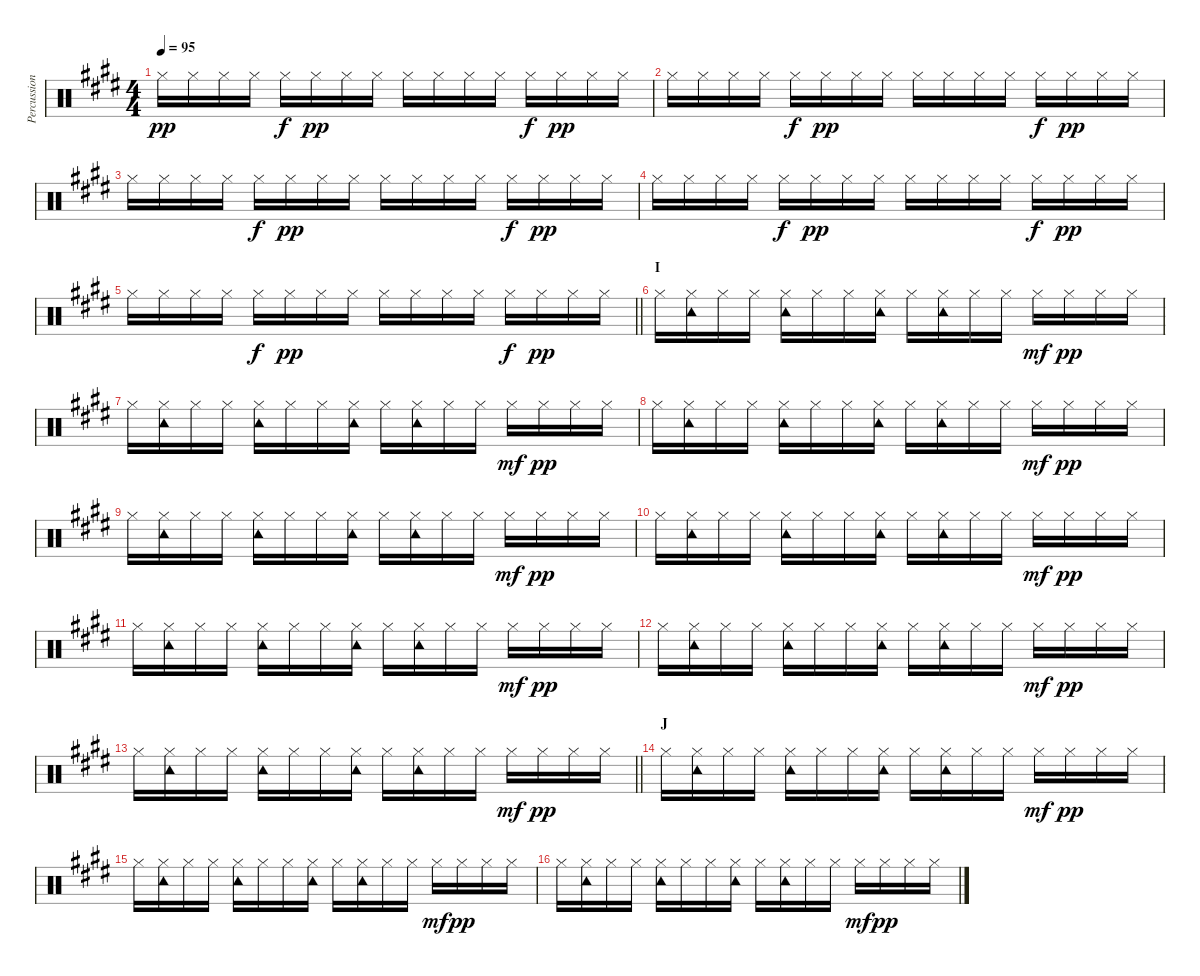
\track ("Percussion" "Percussion") {instrument percussion}
\staff {score}
\articulation defaults
\ts (4 4)
\tempo 95
\clef neutral
\ks e "Hi-Hat (closed)".16{dy pp} "Hi-Hat (closed)".16 "Hi-Hat (closed)".16 "Hi-Hat (closed)".16 "Hi-Hat (closed)".16{dy f} "Hi-Hat (closed)".16{dy pp} "Hi-Hat (closed)".16 "Hi-Hat (closed)".16 "Hi-Hat (closed)".16 "Hi-Hat (closed)".16 "Hi-Hat (closed)".16 "Hi-Hat (closed)".16 "Hi-Hat (closed)".16{dy f} "Hi-Hat (closed)".16{dy pp} "Hi-Hat (closed)".16 "Hi-Hat (closed)".16
|
"Hi-Hat (closed)".16 "Hi-Hat (closed)".16 "Hi-Hat (closed)".16 "Hi-Hat (closed)".16 "Hi-Hat (closed)".16{dy f} "Hi-Hat (closed)".16{dy pp} "Hi-Hat (closed)".16 "Hi-Hat (closed)".16 "Hi-Hat (closed)".16 "Hi-Hat (closed)".16 "Hi-Hat (closed)".16 "Hi-Hat (closed)".16 "Hi-Hat (closed)".16{dy f} "Hi-Hat (closed)".16{dy pp} "Hi-Hat (closed)".16 "Hi-Hat (closed)".16 |
"Hi-Hat (closed)".16 "Hi-Hat (closed)".16 "Hi-Hat (closed)".16 "Hi-Hat (closed)".16 "Hi-Hat (closed)".16{dy f} "Hi-Hat (closed)".16{dy pp} "Hi-Hat (closed)".16 "Hi-Hat (closed)".16 "Hi-Hat (closed)".16 "Hi-Hat (closed)".16 "Hi-Hat (closed)".16 "Hi-Hat (closed)".16 "Hi-Hat (closed)".16{dy f} "Hi-Hat (closed)".16{dy pp} "Hi-Hat (closed)".16 "Hi-Hat (closed)".16 |
"Hi-Hat (closed)".16 "Hi-Hat (closed)".16 "Hi-Hat (closed)".16 "Hi-Hat (closed)".16 "Hi-Hat (closed)".16{dy f} "Hi-Hat (closed)".16{dy pp} "Hi-Hat (closed)".16 "Hi-Hat (closed)".16 "Hi-Hat (closed)".16 "Hi-Hat (closed)".16 "Hi-Hat (closed)".16 "Hi-Hat (closed)".16 "Hi-Hat (closed)".16{dy f} "Hi-Hat (closed)".16{dy pp} "Hi-Hat (closed)".16 "Hi-Hat (closed)".16 |
\barLineRight lightlight "Hi-Hat (closed)".16 "Hi-Hat (closed)".16 "Hi-Hat (closed)".16 "Hi-Hat (closed)".16 "Hi-Hat (closed)".16{dy f} "Hi-Hat (closed)".16{dy pp} "Hi-Hat (closed)".16 "Hi-Hat (closed)".16 "Hi-Hat (closed)".16 "Hi-Hat (closed)".16 "Hi-Hat (closed)".16 "Hi-Hat (closed)".16 "Hi-Hat (closed)".16{dy f} "Hi-Hat (closed)".16{dy pp} "Hi-Hat (closed)".16 "Hi-Hat (closed)".16
|
\section ("" "I")
"Hi-Hat (closed)".16 ("Hi-Hat (closed)" "Tambourine (hit)").16 "Hi-Hat (closed)".16 "Hi-Hat (closed)".16 ("Hi-Hat (closed)" "Tambourine (hit)").16 "Hi-Hat (closed)".16 "Hi-Hat (closed)".16 ("Hi-Hat (closed)" "Tambourine (hit)").16 "Hi-Hat (closed)".16 ("Hi-Hat (closed)" "Tambourine (hit)").16 "Hi-Hat (closed)".16 "Hi-Hat (closed)".16 "Hi-Hat (closed)".16{dy mf} "Hi-Hat (closed)".16{dy pp} "Hi-Hat (closed)".16 "Hi-Hat (closed)".16 |
"Hi-Hat (closed)".16 ("Hi-Hat (closed)" "Tambourine (hit)").16 "Hi-Hat (closed)".16 "Hi-Hat (closed)".16 ("Hi-Hat (closed)" "Tambourine (hit)").16 "Hi-Hat (closed)".16 "Hi-Hat (closed)".16 ("Hi-Hat (closed)" "Tambourine (hit)").16 "Hi-Hat (closed)".16 ("Hi-Hat (closed)" "Tambourine (hit)").16 "Hi-Hat (closed)".16 "Hi-Hat (closed)".16 "Hi-Hat (closed)".16{dy mf} "Hi-Hat (closed)".16{dy pp} "Hi-Hat (closed)".16 "Hi-Hat (closed)".16 |
"Hi-Hat (closed)".16 ("Hi-Hat (closed)" "Tambourine (hit)").16 "Hi-Hat (closed)".16 "Hi-Hat (closed)".16 ("Hi-Hat (closed)" "Tambourine (hit)").16 "Hi-Hat (closed)".16 "Hi-Hat (closed)".16 ("Hi-Hat (closed)" "Tambourine (hit)").16 "Hi-Hat (closed)".16 ("Hi-Hat (closed)" "Tambourine (hit)").16 "Hi-Hat (closed)".16 "Hi-Hat (closed)".16 "Hi-Hat (closed)".16{dy mf} "Hi-Hat (closed)".16{dy pp} "Hi-Hat (closed)".16 "Hi-Hat (closed)".16 |
"Hi-Hat (closed)".16 ("Hi-Hat (closed)" "Tambourine (hit)").16 "Hi-Hat (closed)".16 "Hi-Hat (closed)".16 ("Hi-Hat (closed)" "Tambourine (hit)").16 "Hi-Hat (closed)".16 "Hi-Hat (closed)".16 ("Hi-Hat (closed)" "Tambourine (hit)").16 "Hi-Hat (closed)".16 ("Hi-Hat (closed)" "Tambourine (hit)").16 "Hi-Hat (closed)".16 "Hi-Hat (closed)".16 "Hi-Hat (closed)".16{dy mf} "Hi-Hat (closed)".16{dy pp} "Hi-Hat (closed)".16 "Hi-Hat (closed)".16 |
"Hi-Hat (closed)".16 ("Hi-Hat (closed)" "Tambourine (hit)").16 "Hi-Hat (closed)".16 "Hi-Hat (closed)".16 ("Hi-Hat (closed)" "Tambourine (hit)").16 "Hi-Hat (closed)".16 "Hi-Hat (closed)".16 ("Hi-Hat (closed)" "Tambourine (hit)").16 "Hi-Hat (closed)".16 ("Hi-Hat (closed)" "Tambourine (hit)").16 "Hi-Hat (closed)".16 "Hi-Hat (closed)".16 "Hi-Hat (closed)".16{dy mf} "Hi-Hat (closed)".16{dy pp} "Hi-Hat (closed)".16 "Hi-Hat (closed)".16 |
"Hi-Hat (closed)".16 ("Hi-Hat (closed)" "Tambourine (hit)").16 "Hi-Hat (closed)".16 "Hi-Hat (closed)".16 ("Hi-Hat (closed)" "Tambourine (hit)").16 "Hi-Hat (closed)".16 "Hi-Hat (closed)".16 ("Hi-Hat (closed)" "Tambourine (hit)").16 "Hi-Hat (closed)".16 ("Hi-Hat (closed)" "Tambourine (hit)").16 "Hi-Hat (closed)".16 "Hi-Hat (closed)".16 "Hi-Hat (closed)".16{dy mf} "Hi-Hat (closed)".16{dy pp} "Hi-Hat (closed)".16 "Hi-Hat (closed)".16 |
"Hi-Hat (closed)".16 ("Hi-Hat (closed)" "Tambourine (hit)").16 "Hi-Hat (closed)".16 "Hi-Hat (closed)".16 ("Hi-Hat (closed)" "Tambourine (hit)").16 "Hi-Hat (closed)".16 "Hi-Hat (closed)".16 ("Hi-Hat (closed)" "Tambourine (hit)").16 "Hi-Hat (closed)".16 ("Hi-Hat (closed)" "Tambourine (hit)").16 "Hi-Hat (closed)".16 "Hi-Hat (closed)".16 "Hi-Hat (closed)".16{dy mf} "Hi-Hat (closed)".16{dy pp} "Hi-Hat (closed)".16 "Hi-Hat (closed)".16 |
\barLineRight lightlight "Hi-Hat (closed)".16
("Hi-Hat (closed)" "Tambourine (hit)").16 "Hi-Hat (closed)".16 "Hi-Hat (closed)".16 ("Hi-Hat (closed)" "Tambourine (hit)").16 "Hi-Hat (closed)".16 "Hi-Hat (closed)".16 ("Hi-Hat (closed)" "Tambourine (hit)").16 "Hi-Hat (closed)".16 ("Hi-Hat (closed)" "Tambourine (hit)").16 "Hi-Hat (closed)".16 "Hi-Hat (closed)".16 "Hi-Hat (closed)".16{dy mf} "Hi-Hat (closed)".16{dy pp} "Hi-Hat (closed)".16 "Hi-Hat (closed)".16 |
\section ("" "J")
"Hi-Hat (closed)".16 ("Hi-Hat (closed)" "Tambourine (hit)").16 "Hi-Hat (closed)".16 "Hi-Hat (closed)".16 ("Hi-Hat (closed)" "Tambourine (hit)").16 "Hi-Hat (closed)".16 "Hi-Hat (closed)".16 ("Hi-Hat (closed)" "Tambourine (hit)").16 "Hi-Hat (closed)".16 ("Hi-Hat (closed)" "Tambourine (hit)").16 "Hi-Hat (closed)".16 "Hi-Hat (closed)".16 "Hi-Hat (closed)".16{dy mf} "Hi-Hat (closed)".16{dy pp} "Hi-Hat (closed)".16 "Hi-Hat (closed)".16 |
"Hi-Hat (closed)".16 ("Hi-Hat (closed)" "Tambourine (hit)").16 "Hi-Hat (closed)".16 "Hi-Hat (closed)".16 ("Hi-Hat (closed)" "Tambourine (hit)").16 "Hi-Hat (closed)".16 "Hi-Hat (closed)".16 ("Hi-Hat (closed)" "Tambourine (hit)").16 "Hi-Hat (closed)".16 ("Hi-Hat (closed)" "Tambourine (hit)").16 "Hi-Hat (closed)".16 "Hi-Hat (closed)".16 "Hi-Hat (closed)".16{dy mf} "Hi-Hat (closed)".16{dy pp} "Hi-Hat (closed)".16 "Hi-Hat (closed)".16 |
"Hi-Hat (closed)".16 ("Hi-Hat (closed)" "Tambourine (hit)").16 "Hi-Hat (closed)".16 "Hi-Hat (closed)".16 ("Hi-Hat (closed)" "Tambourine (hit)").16 "Hi-Hat (closed)".16 "Hi-Hat (closed)".16 ("Hi-Hat (closed)" "Tambourine (hit)").16 "Hi-Hat (closed)".16 ("Hi-Hat (closed)" "Tambourine (hit)").16 "Hi-Hat (closed)".16 "Hi-Hat (closed)".16 "Hi-Hat (closed)".16{dy mf} "Hi-Hat (closed)".16{dy pp} "Hi-Hat (closed)".16 "Hi-Hat (closed)".16
